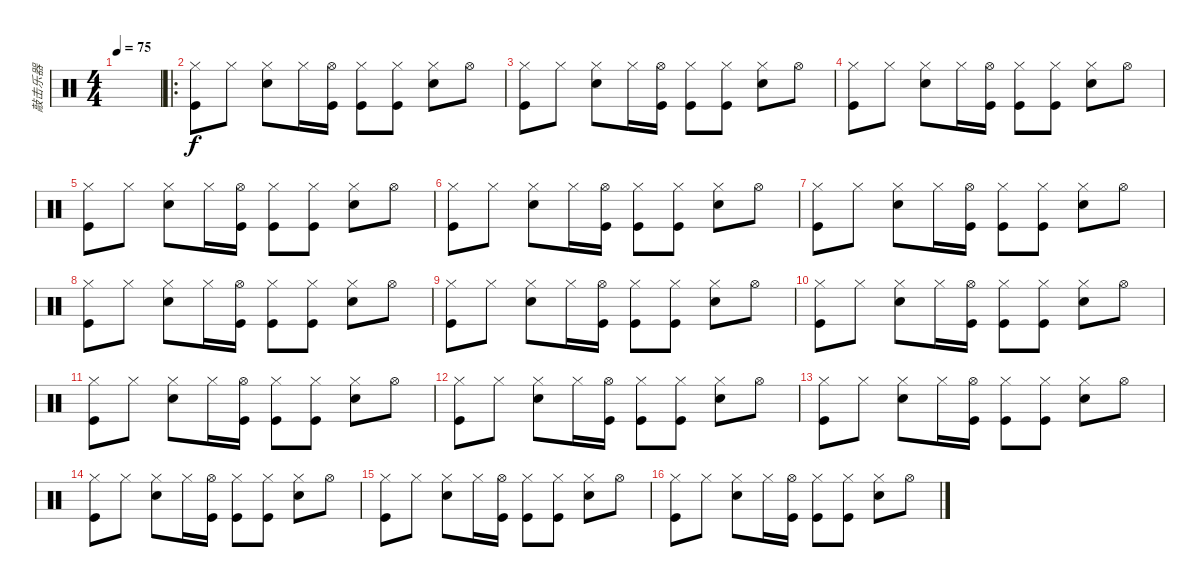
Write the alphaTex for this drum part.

\track ("敲击乐器" "敲击乐器") {instrument percussion}
\staff {score}
\articulation defaults
\ts (4 4)
\tempo 75
\clef neutral
\ks c
|
\ro
("Hi-Hat (closed)" "Kick (hit)").8 "Hi-Hat (closed)".8 ("Hi-Hat (closed)" "Snare (hit) 2").8 "Hi-Hat (closed)".16 ("Hi-Hat (open)" "Kick (hit)").16 ("Hi-Hat (closed)" "Kick (hit)").8 ("Hi-Hat (closed)" "Kick (hit)").8 ("Hi-Hat (closed)" "Snare (hit) 2").8 "Hi-Hat (open)".8 |
("Hi-Hat (closed)" "Kick (hit)").8 "Hi-Hat (closed)".8 ("Hi-Hat (closed)" "Snare (hit) 2").8 "Hi-Hat (closed)".16 ("Hi-Hat (open)" "Kick (hit)").16 ("Hi-Hat (closed)" "Kick (hit)").8 ("Hi-Hat (closed)" "Kick (hit)").8 ("Hi-Hat (closed)" "Snare (hit) 2").8 "Hi-Hat (open)".8 |
("Hi-Hat (closed)" "Kick (hit)").8 "Hi-Hat (closed)".8 ("Hi-Hat (closed)" "Snare (hit) 2").8 "Hi-Hat (closed)".16 ("Hi-Hat (open)" "Kick (hit)").16 ("Hi-Hat (closed)" "Kick (hit)").8 ("Hi-Hat (closed)" "Kick (hit)").8 ("Hi-Hat (closed)" "Snare (hit) 2").8 "Hi-Hat (open)".8 |
("Hi-Hat (closed)" "Kick (hit)").8 "Hi-Hat (closed)".8 ("Hi-Hat (closed)" "Snare (hit) 2").8 "Hi-Hat (closed)".16 ("Hi-Hat (open)" "Kick (hit)").16 ("Hi-Hat (closed)" "Kick (hit)").8 ("Hi-Hat (closed)" "Kick (hit)").8 ("Hi-Hat (closed)" "Snare (hit) 2").8 "Hi-Hat (open)".8 |
("Hi-Hat (closed)" "Kick (hit)").8 "Hi-Hat (closed)".8 ("Hi-Hat (closed)" "Snare (hit) 2").8 "Hi-Hat (closed)".16 ("Hi-Hat (open)" "Kick (hit)").16 ("Hi-Hat (closed)" "Kick (hit)").8 ("Hi-Hat (closed)" "Kick (hit)").8 ("Hi-Hat (closed)" "Snare (hit) 2").8 "Hi-Hat (open)".8 |
("Hi-Hat (closed)" "Kick (hit)").8 "Hi-Hat (closed)".8 ("Hi-Hat (closed)" "Snare (hit) 2").8 "Hi-Hat (closed)".16 ("Hi-Hat (open)" "Kick (hit)").16 ("Hi-Hat (closed)" "Kick (hit)").8 ("Hi-Hat (closed)" "Kick (hit)").8 ("Hi-Hat (closed)" "Snare (hit) 2").8 "Hi-Hat (open)".8 |
("Hi-Hat (closed)" "Kick (hit)").8 "Hi-Hat (closed)".8 ("Hi-Hat (closed)" "Snare (hit) 2").8 "Hi-Hat (closed)".16 ("Hi-Hat (open)" "Kick (hit)").16 ("Hi-Hat (closed)" "Kick (hit)").8 ("Hi-Hat (closed)" "Kick (hit)").8 ("Hi-Hat (closed)" "Snare (hit) 2").8 "Hi-Hat (open)".8 |
("Hi-Hat (closed)" "Kick (hit)").8 "Hi-Hat (closed)".8 ("Hi-Hat (closed)" "Snare (hit) 2").8 "Hi-Hat (closed)".16 ("Hi-Hat (open)" "Kick (hit)").16 ("Hi-Hat (closed)" "Kick (hit)").8 ("Hi-Hat (closed)" "Kick (hit)").8 ("Hi-Hat (closed)" "Snare (hit) 2").8 "Hi-Hat (open)".8 |
("Hi-Hat (closed)" "Kick (hit)").8 "Hi-Hat (closed)".8 ("Hi-Hat (closed)" "Snare (hit) 2").8 "Hi-Hat (closed)".16 ("Hi-Hat (open)" "Kick (hit)").16 ("Hi-Hat (closed)" "Kick (hit)").8 ("Hi-Hat (closed)" "Kick (hit)").8 ("Hi-Hat (closed)" "Snare (hit) 2").8 "Hi-Hat (open)".8 |
("Hi-Hat (closed)" "Kick (hit)").8 "Hi-Hat (closed)".8 ("Hi-Hat (closed)" "Snare (hit) 2").8 "Hi-Hat (closed)".16 ("Hi-Hat (open)" "Kick (hit)").16 ("Hi-Hat (closed)" "Kick (hit)").8 ("Hi-Hat (closed)" "Kick (hit)").8 ("Hi-Hat (closed)" "Snare (hit) 2").8 "Hi-Hat (open)".8 |
("Hi-Hat (closed)" "Kick (hit)").8 "Hi-Hat (closed)".8 ("Hi-Hat (closed)" "Snare (hit) 2").8 "Hi-Hat (closed)".16 ("Hi-Hat (open)" "Kick (hit)").16 ("Hi-Hat (closed)" "Kick (hit)").8 ("Hi-Hat (closed)" "Kick (hit)").8 ("Hi-Hat (closed)" "Snare (hit) 2").8 "Hi-Hat (open)".8 |
("Hi-Hat (closed)" "Kick (hit)").8 "Hi-Hat (closed)".8 ("Hi-Hat (closed)" "Snare (hit) 2").8 "Hi-Hat (closed)".16 ("Hi-Hat (open)" "Kick (hit)").16 ("Hi-Hat (closed)" "Kick (hit)").8 ("Hi-Hat (closed)" "Kick (hit)").8 ("Hi-Hat (closed)" "Snare (hit) 2").8 "Hi-Hat (open)".8 |
("Hi-Hat (closed)" "Kick (hit)").8 "Hi-Hat (closed)".8 ("Hi-Hat (closed)" "Snare (hit) 2").8 "Hi-Hat (closed)".16 ("Hi-Hat (open)" "Kick (hit)").16 ("Hi-Hat (closed)" "Kick (hit)").8 ("Hi-Hat (closed)" "Kick (hit)").8 ("Hi-Hat (closed)" "Snare (hit) 2").8 "Hi-Hat (open)".8 |
("Hi-Hat (closed)" "Kick (hit)").8 "Hi-Hat (closed)".8 ("Hi-Hat (closed)" "Snare (hit) 2").8 "Hi-Hat (closed)".16 ("Hi-Hat (open)" "Kick (hit)").16 ("Hi-Hat (closed)" "Kick (hit)").8 ("Hi-Hat (closed)" "Kick (hit)").8 ("Hi-Hat (closed)" "Snare (hit) 2").8 "Hi-Hat (open)".8 |
("Hi-Hat (closed)" "Kick (hit)").8 "Hi-Hat (closed)".8 ("Hi-Hat (closed)" "Snare (hit) 2").8 "Hi-Hat (closed)".16 ("Hi-Hat (open)" "Kick (hit)").16 ("Hi-Hat (closed)" "Kick (hit)").8 ("Hi-Hat (closed)" "Kick (hit)").8 ("Hi-Hat (closed)" "Snare (hit) 2").8 "Hi-Hat (open)".8
